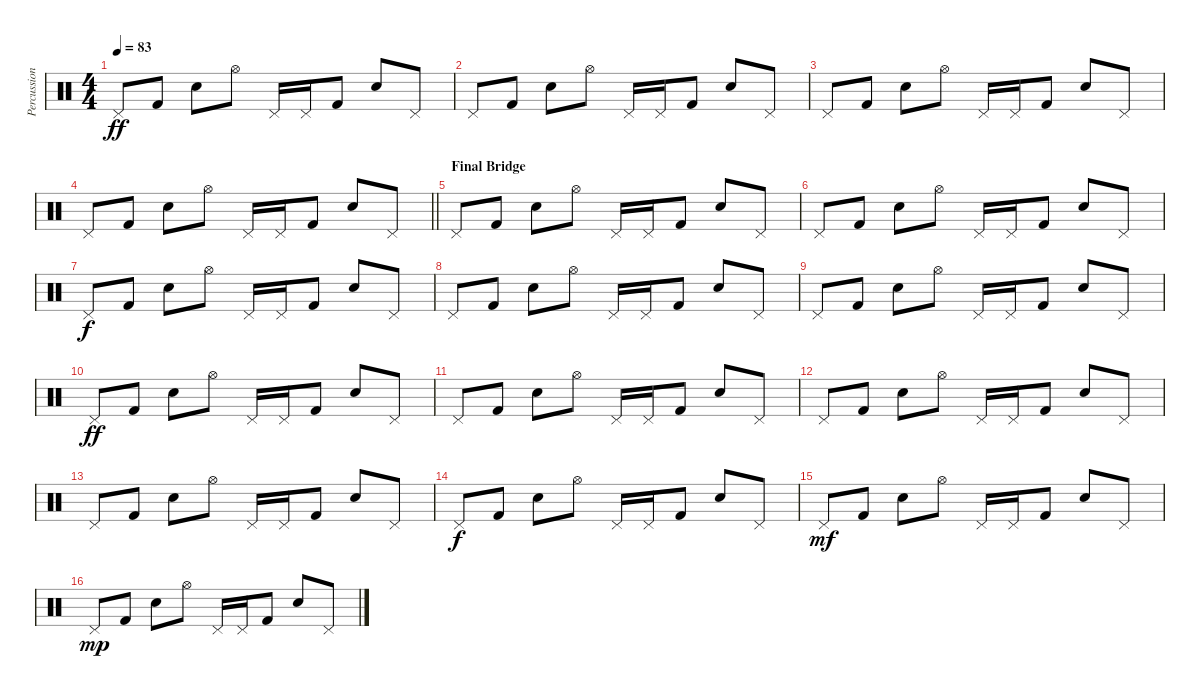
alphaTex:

\track ("Percussion" "Percussion") {instrument percussion}
\staff {score}
\articulation defaults
\ts (4 4)
\tempo 83
\clef neutral
\ks c "Pedal Hi-Hat (hit)".8{dy ff} "Kick (hit) 2".8 "Hand Clap (hit)".8 "Hi-Hat (open)".8 "Pedal Hi-Hat (hit)".16 "Pedal Hi-Hat (hit)".16 "Kick (hit) 2".8 "Hand Clap (hit)".8 "Pedal Hi-Hat (hit)".8
|
"Pedal Hi-Hat (hit)".8 "Kick (hit) 2".8 "Hand Clap (hit)".8 "Hi-Hat (open)".8 "Pedal Hi-Hat (hit)".16 "Pedal Hi-Hat (hit)".16 "Kick (hit) 2".8 "Hand Clap (hit)".8 "Pedal Hi-Hat (hit)".8 |
"Pedal Hi-Hat (hit)".8 "Kick (hit) 2".8 "Hand Clap (hit)".8 "Hi-Hat (open)".8 "Pedal Hi-Hat (hit)".16 "Pedal Hi-Hat (hit)".16 "Kick (hit) 2".8 "Hand Clap (hit)".8 "Pedal Hi-Hat (hit)".8 |
\barLineRight lightlight "Pedal Hi-Hat (hit)".8 "Kick (hit) 2".8 "Hand Clap (hit)".8 "Hi-Hat (open)".8 "Pedal Hi-Hat (hit)".16 "Pedal Hi-Hat (hit)".16 "Kick (hit) 2".8 "Hand Clap (hit)".8 "Pedal Hi-Hat (hit)".8
|
\section ("" "Final Bridge")
"Pedal Hi-Hat (hit)".8 "Kick (hit) 2".8 "Hand Clap (hit)".8 "Hi-Hat (open)".8 "Pedal Hi-Hat (hit)".16 "Pedal Hi-Hat (hit)".16 "Kick (hit) 2".8 "Hand Clap (hit)".8 "Pedal Hi-Hat (hit)".8 |
"Pedal Hi-Hat (hit)".8 "Kick (hit) 2".8 "Hand Clap (hit)".8 "Hi-Hat (open)".8 "Pedal Hi-Hat (hit)".16 "Pedal Hi-Hat (hit)".16 "Kick (hit) 2".8 "Hand Clap (hit)".8 "Pedal Hi-Hat (hit)".8 |
"Pedal Hi-Hat (hit)".8{dy f} "Kick (hit) 2".8 "Hand Clap (hit)".8 "Hi-Hat (open)".8 "Pedal Hi-Hat (hit)".16 "Pedal Hi-Hat (hit)".16 "Kick (hit) 2".8 "Hand Clap (hit)".8 "Pedal Hi-Hat (hit)".8 |
"Pedal Hi-Hat (hit)".8 "Kick (hit) 2".8 "Hand Clap (hit)".8 "Hi-Hat (open)".8 "Pedal Hi-Hat (hit)".16 "Pedal Hi-Hat (hit)".16 "Kick (hit) 2".8 "Hand Clap (hit)".8 "Pedal Hi-Hat (hit)".8 |
"Pedal Hi-Hat (hit)".8 "Kick (hit) 2".8 "Hand Clap (hit)".8 "Hi-Hat (open)".8 "Pedal Hi-Hat (hit)".16 "Pedal Hi-Hat (hit)".16 "Kick (hit) 2".8 "Hand Clap (hit)".8 "Pedal Hi-Hat (hit)".8 |
"Pedal Hi-Hat (hit)".8{dy ff} "Kick (hit) 2".8 "Hand Clap (hit)".8 "Hi-Hat (open)".8 "Pedal Hi-Hat (hit)".16 "Pedal Hi-Hat (hit)".16 "Kick (hit) 2".8 "Hand Clap (hit)".8 "Pedal Hi-Hat (hit)".8 |
"Pedal Hi-Hat (hit)".8 "Kick (hit) 2".8 "Hand Clap (hit)".8 "Hi-Hat (open)".8 "Pedal Hi-Hat (hit)".16 "Pedal Hi-Hat (hit)".16 "Kick (hit) 2".8 "Hand Clap (hit)".8 "Pedal Hi-Hat (hit)".8 |
"Pedal Hi-Hat (hit)".8 "Kick (hit) 2".8 "Hand Clap (hit)".8 "Hi-Hat (open)".8 "Pedal Hi-Hat (hit)".16 "Pedal Hi-Hat (hit)".16 "Kick (hit) 2".8 "Hand Clap (hit)".8 "Pedal Hi-Hat (hit)".8 |
"Pedal Hi-Hat (hit)".8 "Kick (hit) 2".8 "Hand Clap (hit)".8 "Hi-Hat (open)".8 "Pedal Hi-Hat (hit)".16 "Pedal Hi-Hat (hit)".16 "Kick (hit) 2".8 "Hand Clap (hit)".8 "Pedal Hi-Hat (hit)".8 |
"Pedal Hi-Hat (hit)".8{dy f} "Kick (hit) 2".8 "Hand Clap (hit)".8 "Hi-Hat (open)".8 "Pedal Hi-Hat (hit)".16 "Pedal Hi-Hat (hit)".16 "Kick (hit) 2".8 "Hand Clap (hit)".8 "Pedal Hi-Hat (hit)".8 |
"Pedal Hi-Hat (hit)".8{dy mf} "Kick (hit) 2".8 "Hand Clap (hit)".8 "Hi-Hat (open)".8 "Pedal Hi-Hat (hit)".16 "Pedal Hi-Hat (hit)".16 "Kick (hit) 2".8 "Hand Clap (hit)".8 "Pedal Hi-Hat (hit)".8 |
"Pedal Hi-Hat (hit)".8{dy mp} "Kick (hit) 2".8 "Hand Clap (hit)".8 "Hi-Hat (open)".8 "Pedal Hi-Hat (hit)".16 "Pedal Hi-Hat (hit)".16 "Kick (hit) 2".8 "Hand Clap (hit)".8 "Pedal Hi-Hat (hit)".8
